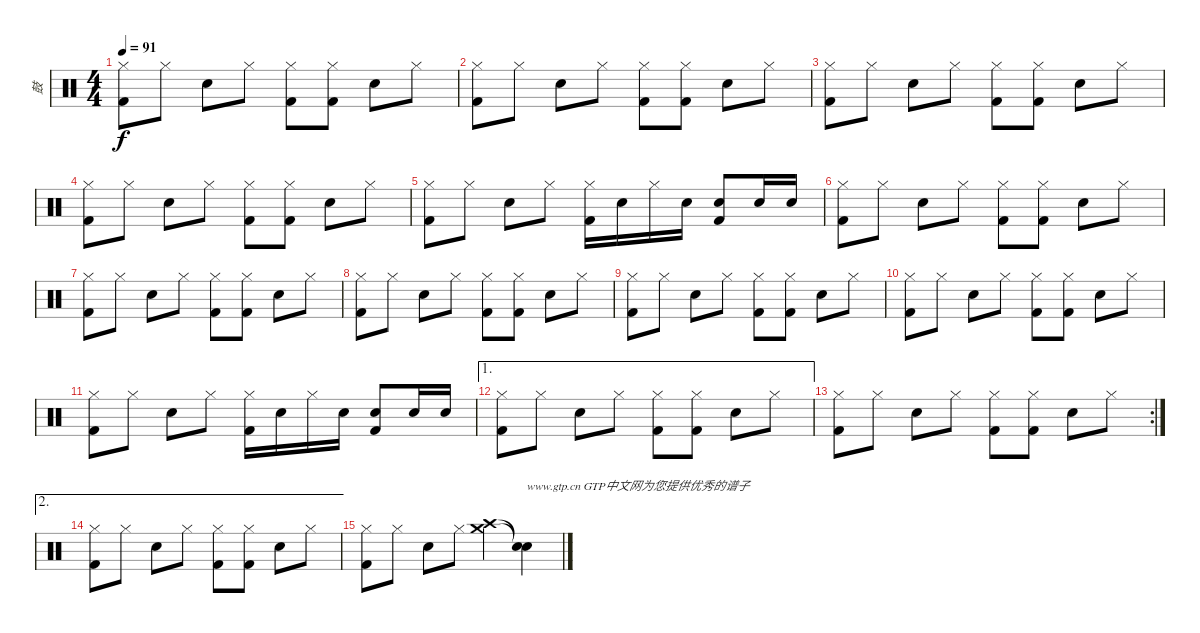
\track ("鼓" "鼓") {instrument percussion}
\staff {score}
\articulation defaults
\ts (4 4)
\tempo 91
\clef neutral
\ks c
("Hi-Hat (closed)" "Kick (hit) 2").8{dy f} "Hi-Hat (closed)".8 "Snare (hit) 2".8 "Hi-Hat (closed)".8 ("Hi-Hat (closed)" "Kick (hit) 2").8 ("Hi-Hat (closed)" "Kick (hit) 2").8 "Snare (hit) 2".8 "Hi-Hat (closed)".8 |
("Hi-Hat (closed)" "Kick (hit) 2").8 "Hi-Hat (closed)".8 "Snare (hit) 2".8 "Hi-Hat (closed)".8 ("Hi-Hat (closed)" "Kick (hit) 2").8 ("Hi-Hat (closed)" "Kick (hit) 2").8 "Snare (hit) 2".8 "Hi-Hat (closed)".8 |
("Hi-Hat (closed)" "Kick (hit) 2").8 "Hi-Hat (closed)".8 "Snare (hit) 2".8 "Hi-Hat (closed)".8 ("Hi-Hat (closed)" "Kick (hit) 2").8 ("Hi-Hat (closed)" "Kick (hit) 2").8 "Snare (hit) 2".8 "Hi-Hat (closed)".8 |
("Hi-Hat (closed)" "Kick (hit) 2").8 "Hi-Hat (closed)".8 "Snare (hit) 2".8 "Hi-Hat (closed)".8 ("Hi-Hat (closed)" "Kick (hit) 2").8 ("Hi-Hat (closed)" "Kick (hit) 2").8 "Snare (hit) 2".8 "Hi-Hat (closed)".8 |
("Hi-Hat (closed)" "Kick (hit) 2").8 "Hi-Hat (closed)".8 "Snare (hit) 2".8 "Hi-Hat (closed)".8 ("Hi-Hat (closed)" "Kick (hit) 2").16 "Snare (hit) 2".16 "Hi-Hat (closed)".16 "Snare (hit) 2".16 ("Snare (hit) 2" "Kick (hit) 2").8 "Snare (hit) 2".16 "Snare (hit) 2".16 |
("Hi-Hat (closed)" "Kick (hit) 2").8 "Hi-Hat (closed)".8 "Snare (hit) 2".8 "Hi-Hat (closed)".8 ("Hi-Hat (closed)" "Kick (hit) 2").8 ("Hi-Hat (closed)" "Kick (hit) 2").8 "Snare (hit) 2".8 "Hi-Hat (closed)".8 |
("Hi-Hat (closed)" "Kick (hit) 2").8 "Hi-Hat (closed)".8 "Snare (hit) 2".8 "Hi-Hat (closed)".8 ("Hi-Hat (closed)" "Kick (hit) 2").8 ("Hi-Hat (closed)" "Kick (hit) 2").8 "Snare (hit) 2".8 "Hi-Hat (closed)".8 |
("Hi-Hat (closed)" "Kick (hit) 2").8 "Hi-Hat (closed)".8 "Snare (hit) 2".8 "Hi-Hat (closed)".8 ("Hi-Hat (closed)" "Kick (hit) 2").8 ("Hi-Hat (closed)" "Kick (hit) 2").8 "Snare (hit) 2".8 "Hi-Hat (closed)".8 |
("Hi-Hat (closed)" "Kick (hit) 2").8 "Hi-Hat (closed)".8 "Snare (hit) 2".8 "Hi-Hat (closed)".8 ("Hi-Hat (closed)" "Kick (hit) 2").8 ("Hi-Hat (closed)" "Kick (hit) 2").8 "Snare (hit) 2".8 "Hi-Hat (closed)".8 |
("Hi-Hat (closed)" "Kick (hit) 2").8 "Hi-Hat (closed)".8 "Snare (hit) 2".8 "Hi-Hat (closed)".8 ("Hi-Hat (closed)" "Kick (hit) 2").8 ("Hi-Hat (closed)" "Kick (hit) 2").8 "Snare (hit) 2".8 "Hi-Hat (closed)".8 |
("Hi-Hat (closed)" "Kick (hit) 2").8 "Hi-Hat (closed)".8 "Snare (hit) 2".8 "Hi-Hat (closed)".8 ("Hi-Hat (closed)" "Kick (hit) 2").16 "Snare (hit) 2".16 "Hi-Hat (closed)".16 "Snare (hit) 2".16 ("Snare (hit) 2" "Kick (hit) 2").8 "Snare (hit) 2".16 "Snare (hit) 2".16 |
\ae 1
("Hi-Hat (closed)" "Kick (hit) 2").8 "Hi-Hat (closed)".8 "Snare (hit) 2".8 "Hi-Hat (closed)".8 ("Hi-Hat (closed)" "Kick (hit) 2").8 ("Hi-Hat (closed)" "Kick (hit) 2").8 "Snare (hit) 2".8 "Hi-Hat (closed)".8 |
\rc 2
("Hi-Hat (closed)" "Kick (hit) 2").8 "Hi-Hat (closed)".8 "Snare (hit) 2".8 "Hi-Hat (closed)".8 ("Hi-Hat (closed)" "Kick (hit) 2").8 ("Hi-Hat (closed)" "Kick (hit) 2").8 "Snare (hit) 2".8 "Hi-Hat (closed)".8 |
\ae 2
("Hi-Hat (closed)" "Kick (hit) 2").8 "Hi-Hat (closed)".8 "Snare (hit) 2".8 "Hi-Hat (closed)".8 ("Hi-Hat (closed)" "Kick (hit) 2").8 ("Hi-Hat (closed)" "Kick (hit) 2").8 "Snare (hit) 2".8 "Hi-Hat (closed)".8 |
("Hi-Hat (closed)" "Kick (hit) 2").8 "Hi-Hat (closed)".8 "Snare (hit) 2".8 "Hi-Hat (closed)".8 ("Crash high (hit)" "Crash medium (hit)").4 ("Snare (hit)"{t} "Snare (hit)"{t}).4{txt "www.gtp.cn GTP中文网为您提供优秀的谱子"}
